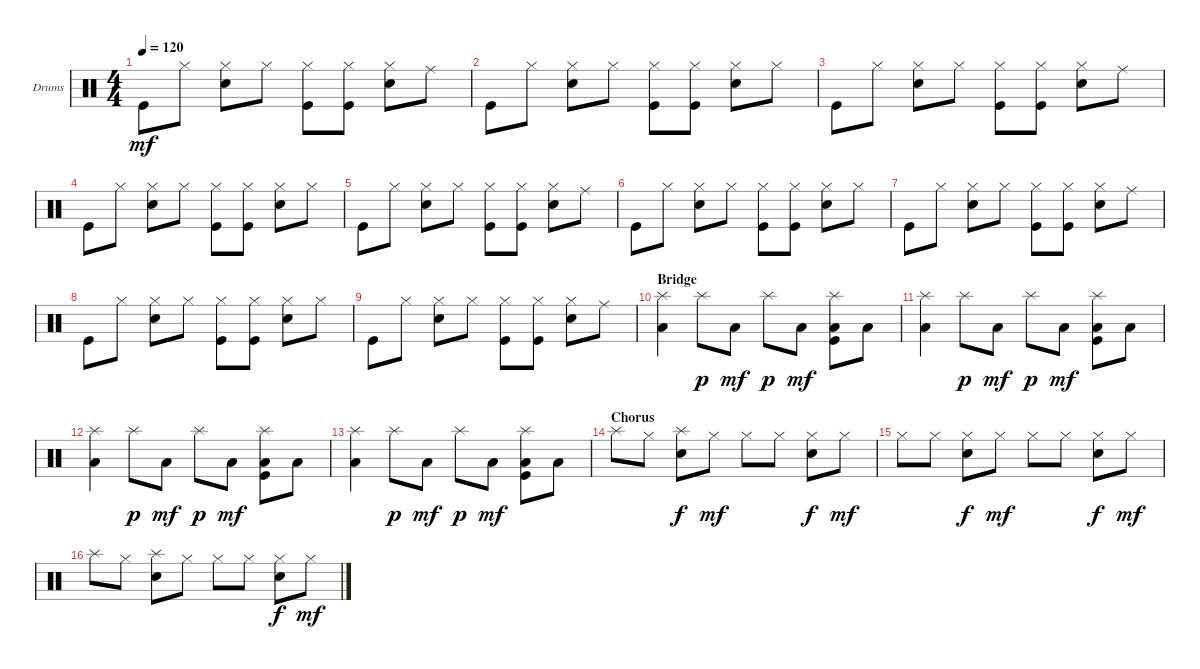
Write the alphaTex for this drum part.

\bracketExtendMode groupsimilarinstruments
\firstSystemTrackNameOrientation horizontal
\otherSystemsTrackNameOrientation horizontal
\track ("Drumkit" "Drums") {instrument percussion}
\staff {score}
\articulation defaults
\ts (4 4)
\tempo 120
\clef neutral
\ks c "Kick (hit)".8{dy mf} "Hi-Hat (closed)".8
("Snare (hit) 2" "Hi-Hat (closed)").8 "Hi-Hat (closed)".8 ("Kick (hit)" "Hi-Hat (closed)").8 ("Kick (hit)" "Hi-Hat (closed)").8 ("Snare (hit) 2" "Hi-Hat (closed)").8 "Ride (middle)".8 |
"Kick (hit)".8 "Hi-Hat (closed)".8 ("Snare (hit) 2" "Hi-Hat (closed)").8 "Hi-Hat (closed)".8 ("Kick (hit)" "Hi-Hat (closed)").8 ("Kick (hit)" "Hi-Hat (closed)").8 ("Snare (hit) 2" "Hi-Hat (closed)").8 "Hi-Hat (closed)".8 |
"Kick (hit)".8 "Hi-Hat (closed)".8 ("Snare (hit) 2" "Hi-Hat (closed)").8 "Hi-Hat (closed)".8 ("Kick (hit)" "Hi-Hat (closed)").8 ("Kick (hit)" "Hi-Hat (closed)").8 ("Snare (hit) 2" "Hi-Hat (closed)").8 "Ride (middle)".8 |
"Kick (hit)".8 "Hi-Hat (closed)".8 ("Snare (hit) 2" "Hi-Hat (closed)").8 "Hi-Hat (closed)".8 ("Kick (hit)" "Hi-Hat (closed)").8 ("Kick (hit)" "Hi-Hat (closed)").8 ("Snare (hit) 2" "Hi-Hat (closed)").8 "Hi-Hat (closed)".8 |
"Kick (hit)".8 "Hi-Hat (closed)".8 ("Snare (hit) 2" "Hi-Hat (closed)").8 "Hi-Hat (closed)".8 ("Kick (hit)" "Hi-Hat (closed)").8 ("Kick (hit)" "Hi-Hat (closed)").8 ("Snare (hit) 2" "Hi-Hat (closed)").8 "Ride (middle)".8 |
"Kick (hit)".8 "Hi-Hat (closed)".8 ("Snare (hit) 2" "Hi-Hat (closed)").8 "Hi-Hat (closed)".8 ("Kick (hit)" "Hi-Hat (closed)").8 ("Kick (hit)" "Hi-Hat (closed)").8 ("Snare (hit) 2" "Hi-Hat (closed)").8 "Hi-Hat (closed)".8 |
"Kick (hit)".8 "Hi-Hat (closed)".8 ("Snare (hit) 2" "Hi-Hat (closed)").8 "Hi-Hat (closed)".8 ("Kick (hit)" "Hi-Hat (closed)").8 ("Kick (hit)" "Hi-Hat (closed)").8 ("Snare (hit) 2" "Hi-Hat (closed)").8 "Ride (middle)".8 |
"Kick (hit)".8 "Hi-Hat (closed)".8 ("Snare (hit) 2" "Hi-Hat (closed)").8 "Hi-Hat (closed)".8 ("Kick (hit)" "Hi-Hat (closed)").8 ("Kick (hit)" "Hi-Hat (closed)").8 ("Snare (hit) 2" "Hi-Hat (closed)").8 "Hi-Hat (closed)".8 |
"Kick (hit)".8 "Hi-Hat (closed)".8 ("Snare (hit) 2" "Hi-Hat (closed)").8 "Hi-Hat (closed)".8 ("Kick (hit)" "Hi-Hat (closed)").8 ("Kick (hit)" "Hi-Hat (closed)").8 ("Snare (hit) 2" "Hi-Hat (closed)").8 "Ride (middle)".8 |
\section ("" "Bridge")
("Low Tom (hit)" "Splash (hit)").4 "Splash (hit)".8{dy p} "Low Tom (hit)".8{dy mf} "Splash (hit)".8{dy p} "Low Tom (hit)".8{dy mf} ("Kick (hit)" "Low Tom (hit)" "Splash (hit)").8 "Low Tom (hit)".8 |
("Low Tom (hit)" "Splash (hit)").4 "Splash (hit)".8{dy p} "Low Tom (hit)".8{dy mf} "Splash (hit)".8{dy p} "Low Tom (hit)".8{dy mf} ("Kick (hit)" "Low Tom (hit)" "Splash (hit)").8 "Low Tom (hit)".8 |
("Low Tom (hit)" "Splash (hit)").4 "Splash (hit)".8{dy p} "Low Tom (hit)".8{dy mf} "Splash (hit)".8{dy p} "Low Tom (hit)".8{dy mf} ("Kick (hit)" "Low Tom (hit)" "Splash (hit)").8 "Low Tom (hit)".8 |
("Low Tom (hit)" "Splash (hit)").4 "Splash (hit)".8{dy p} "Low Tom (hit)".8{dy mf} "Splash (hit)".8{dy p} "Low Tom (hit)".8{dy mf} ("Kick (hit)" "Low Tom (hit)" "Splash (hit)").8 "Low Tom (hit)".8 |
\section ("" "Chorus")
"Splash (hit)".8 "Hi-Hat (closed)".8 ("Snare (hit) 2" "Splash (hit)").8{dy f} "Hi-Hat (closed)".8{dy mf} "Hi-Hat (closed)".8 "Hi-Hat (closed)".8 ("Hi-Hat (closed)" "Snare (hit) 2").8{dy f} "Hi-Hat (closed)".8{dy mf} |
"Hi-Hat (closed)".8 "Hi-Hat (closed)".8 ("Hi-Hat (closed)" "Snare (hit) 2").8{dy f} "Hi-Hat (closed)".8{dy mf} "Hi-Hat (closed)".8 "Hi-Hat (closed)".8 ("Hi-Hat (closed)" "Snare (hit) 2").8{dy f} "Hi-Hat (closed)".8{dy mf} |
"Splash (hit)".8 "Hi-Hat (closed)".8 ("Snare (hit) 2" "Splash (hit)").8 "Hi-Hat (closed)".8 "Hi-Hat (closed)".8 "Hi-Hat (closed)".8 ("Hi-Hat (closed)" "Snare (hit) 2").8{dy f} "Hi-Hat (closed)".8{dy mf}
